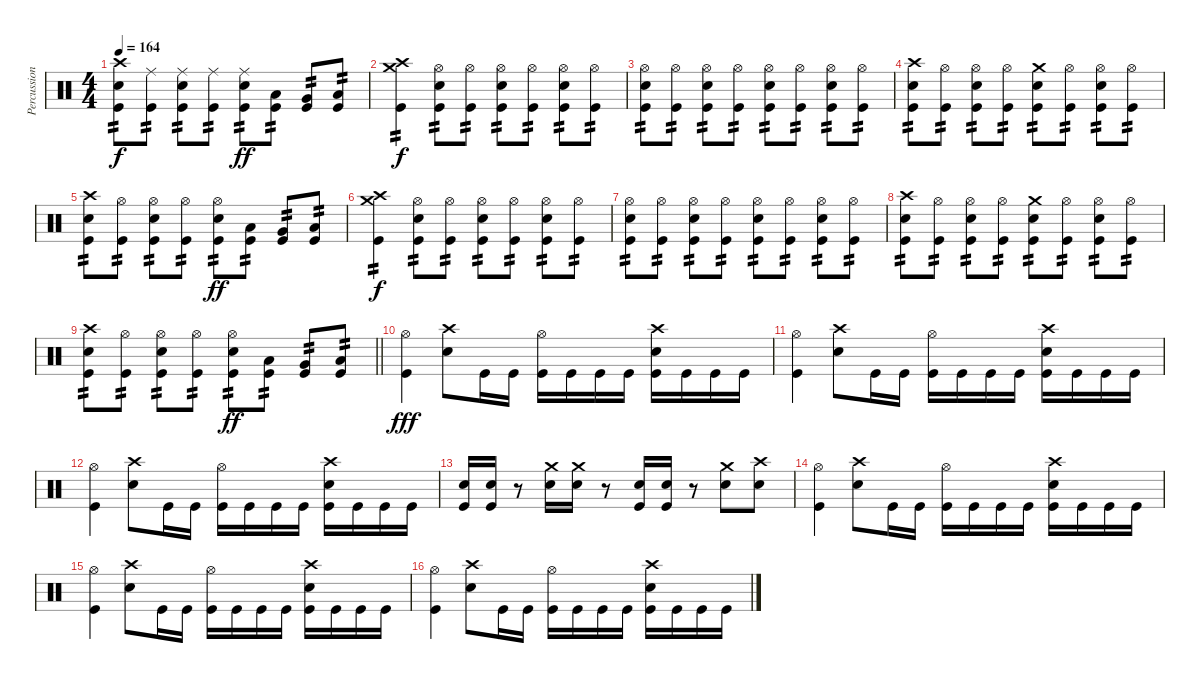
\track ("Percussion" "Percussion") {instrument percussion}
\staff {score}
\articulation defaults
\ts (4 4)
\tempo 164
\clef neutral
\ks c
("Crash high (hit)" "Electric Snare (hit)" "Kick (hit)").8{tp 2 dy f} ("Ride (middle)" "Kick (hit)").8{tp 2} ("Ride (middle)" "Electric Snare (hit)" "Kick (hit)").8{tp 2} ("Ride (middle)" "Kick (hit)").8{tp 2} ("Ride (middle)" "Electric Snare (hit)" "Kick (hit)").8{tp 2 dy ff} ("Low Tom (hit)" "Kick (hit)").8{tp 2} ("Very Low Tom (hit)" "Kick (hit)").8{tp 2} ("Low Floor Tom (hit)" "Kick (hit)").8{tp 2} |
("Crash medium (hit)" "Crash high (hit)" "Kick (hit)").4{tp 2 dy f} ("Hi-Hat (open)" "Electric Snare (hit)" "Kick (hit)").8{tp 2} ("Hi-Hat (open)" "Kick (hit)").8{tp 2} ("Hi-Hat (open)" "Electric Snare (hit)" "Kick (hit)").8{tp 2} ("Hi-Hat (open)" "Kick (hit)").8{tp 2} ("Hi-Hat (open)" "Electric Snare (hit)" "Kick (hit)").8{tp 2} ("Hi-Hat (open)" "Kick (hit)").8{tp 2} |
("Hi-Hat (open)" "Electric Snare (hit)" "Kick (hit)").8{tp 2} ("Hi-Hat (open)" "Kick (hit)").8{tp 2} ("Hi-Hat (open)" "Electric Snare (hit)" "Kick (hit)").8{tp 2} ("Hi-Hat (open)" "Kick (hit)").8{tp 2} ("Hi-Hat (open)" "Electric Snare (hit)" "Kick (hit)").8{tp 2} ("Hi-Hat (open)" "Kick (hit)").8{tp 2} ("Hi-Hat (open)" "Electric Snare (hit)" "Kick (hit)").8{tp 2} ("Hi-Hat (open)" "Kick (hit)").8{tp 2} |
("Crash high (hit)" "Electric Snare (hit)" "Kick (hit)").8{tp 2} ("Hi-Hat (open)" "Kick (hit)").8{tp 2} ("Hi-Hat (open)" "Electric Snare (hit)" "Kick (hit)").8{tp 2} ("Hi-Hat (open)" "Kick (hit)").8{tp 2} ("Crash medium (hit)" "Electric Snare (hit)" "Kick (hit)").8{tp 2} ("Hi-Hat (open)" "Kick (hit)").8{tp 2} ("Hi-Hat (open)" "Electric Snare (hit)" "Kick (hit)").8{tp 2} ("Hi-Hat (open)" "Kick (hit)").8{tp 2} |
("Crash high (hit)" "Electric Snare (hit)" "Kick (hit)").8{tp 2} ("Hi-Hat (open)" "Kick (hit)").8{tp 2} ("Hi-Hat (open)" "Electric Snare (hit)" "Kick (hit)").8{tp 2} ("Hi-Hat (open)" "Kick (hit)").8{tp 2} ("Hi-Hat (open)" "Electric Snare (hit)" "Kick (hit)").8{tp 2 dy ff} ("Low Tom (hit)" "Kick (hit)").8{tp 2} ("Very Low Tom (hit)" "Kick (hit)").8{tp 2} ("Low Floor Tom (hit)" "Kick (hit)").8{tp 2} |
("Crash medium (hit)" "Crash high (hit)" "Kick (hit)").4{tp 2 dy f} ("Hi-Hat (open)" "Electric Snare (hit)" "Kick (hit)").8{tp 2} ("Hi-Hat (open)" "Kick (hit)").8{tp 2} ("Hi-Hat (open)" "Electric Snare (hit)" "Kick (hit)").8{tp 2} ("Hi-Hat (open)" "Kick (hit)").8{tp 2} ("Hi-Hat (open)" "Electric Snare (hit)" "Kick (hit)").8{tp 2} ("Hi-Hat (open)" "Kick (hit)").8{tp 2} |
("Hi-Hat (open)" "Electric Snare (hit)" "Kick (hit)").8{tp 2} ("Hi-Hat (open)" "Kick (hit)").8{tp 2} ("Hi-Hat (open)" "Electric Snare (hit)" "Kick (hit)").8{tp 2} ("Hi-Hat (open)" "Kick (hit)").8{tp 2} ("Hi-Hat (open)" "Electric Snare (hit)" "Kick (hit)").8{tp 2} ("Hi-Hat (open)" "Kick (hit)").8{tp 2} ("Hi-Hat (open)" "Electric Snare (hit)" "Kick (hit)").8{tp 2} ("Hi-Hat (open)" "Kick (hit)").8{tp 2} |
("Crash high (hit)" "Electric Snare (hit)" "Kick (hit)").8{tp 2} ("Hi-Hat (open)" "Kick (hit)").8{tp 2} ("Hi-Hat (open)" "Electric Snare (hit)" "Kick (hit)").8{tp 2} ("Hi-Hat (open)" "Kick (hit)").8{tp 2} ("Crash medium (hit)" "Electric Snare (hit)" "Kick (hit)").8{tp 2} ("Hi-Hat (open)" "Kick (hit)").8{tp 2} ("Hi-Hat (open)" "Electric Snare (hit)" "Kick (hit)").8{tp 2} ("Hi-Hat (open)" "Kick (hit)").8{tp 2} |
\barLineRight lightlight
("Crash high (hit)" "Electric Snare (hit)" "Kick (hit)").8{tp 2} ("Hi-Hat (open)" "Kick (hit)").8{tp 2} ("Hi-Hat (open)" "Electric Snare (hit)" "Kick (hit)").8{tp 2} ("Hi-Hat (open)" "Kick (hit)").8{tp 2} ("Hi-Hat (open)" "Electric Snare (hit)" "Kick (hit)").8{tp 2 dy ff} ("Low Tom (hit)" "Kick (hit)").8{tp 2} ("Very Low Tom (hit)" "Kick (hit)").8{tp 2} ("Low Floor Tom (hit)" "Kick (hit)").8{tp 2} |
("Hi-Hat (open)" "Kick (hit)").4{dy fff} ("Crash high (hit)" "Electric Snare (hit)").8 "Kick (hit)".16 "Kick (hit)".16 ("Hi-Hat (open)" "Kick (hit)").16 "Kick (hit)".16 "Kick (hit)".16 "Kick (hit)".16 ("Crash high (hit)" "Electric Snare (hit)" "Kick (hit)").16 "Kick (hit)".16 "Kick (hit)".16 "Kick (hit)".16 |
("Hi-Hat (open)" "Kick (hit)").4 ("Crash high (hit)" "Electric Snare (hit)").8 "Kick (hit)".16 "Kick (hit)".16 ("Hi-Hat (open)" "Kick (hit)").16 "Kick (hit)".16 "Kick (hit)".16 "Kick (hit)".16 ("Crash high (hit)" "Electric Snare (hit)" "Kick (hit)").16 "Kick (hit)".16 "Kick (hit)".16 "Kick (hit)".16 |
("Hi-Hat (open)" "Kick (hit)").4 ("Crash high (hit)" "Electric Snare (hit)").8 "Kick (hit)".16 "Kick (hit)".16 ("Hi-Hat (open)" "Kick (hit)").16 "Kick (hit)".16 "Kick (hit)".16 "Kick (hit)".16 ("Crash high (hit)" "Electric Snare (hit)" "Kick (hit)").16 "Kick (hit)".16 "Kick (hit)".16 "Kick (hit)".16 |
("Electric Snare (hit)" "Kick (hit)").16 ("Electric Snare (hit)" "Kick (hit)").16 r.8 ("Crash medium (hit)" "Electric Snare (hit)").16 ("Crash medium (hit)" "Electric Snare (hit)").16 r.8 ("Electric Snare (hit)" "Kick (hit)").16 ("Electric Snare (hit)" "Kick (hit)").16 r.8 ("Crash medium (hit)" "Electric Snare (hit)").8 ("Crash high (hit)" "Electric Snare (hit)").8 |
("Hi-Hat (open)" "Kick (hit)").4 ("Crash high (hit)" "Electric Snare (hit)").8 "Kick (hit)".16 "Kick (hit)".16 ("Hi-Hat (open)" "Kick (hit)").16 "Kick (hit)".16 "Kick (hit)".16 "Kick (hit)".16 ("Crash high (hit)" "Electric Snare (hit)" "Kick (hit)").16 "Kick (hit)".16 "Kick (hit)".16 "Kick (hit)".16 |
("Hi-Hat (open)" "Kick (hit)").4 ("Crash high (hit)" "Electric Snare (hit)").8 "Kick (hit)".16 "Kick (hit)".16 ("Hi-Hat (open)" "Kick (hit)").16 "Kick (hit)".16 "Kick (hit)".16 "Kick (hit)".16 ("Crash high (hit)" "Electric Snare (hit)" "Kick (hit)").16 "Kick (hit)".16 "Kick (hit)".16 "Kick (hit)".16 |
("Hi-Hat (open)" "Kick (hit)").4 ("Crash high (hit)" "Electric Snare (hit)").8 "Kick (hit)".16 "Kick (hit)".16 ("Hi-Hat (open)" "Kick (hit)").16 "Kick (hit)".16 "Kick (hit)".16 "Kick (hit)".16 ("Crash high (hit)" "Electric Snare (hit)" "Kick (hit)").16 "Kick (hit)".16 "Kick (hit)".16 "Kick (hit)".16
